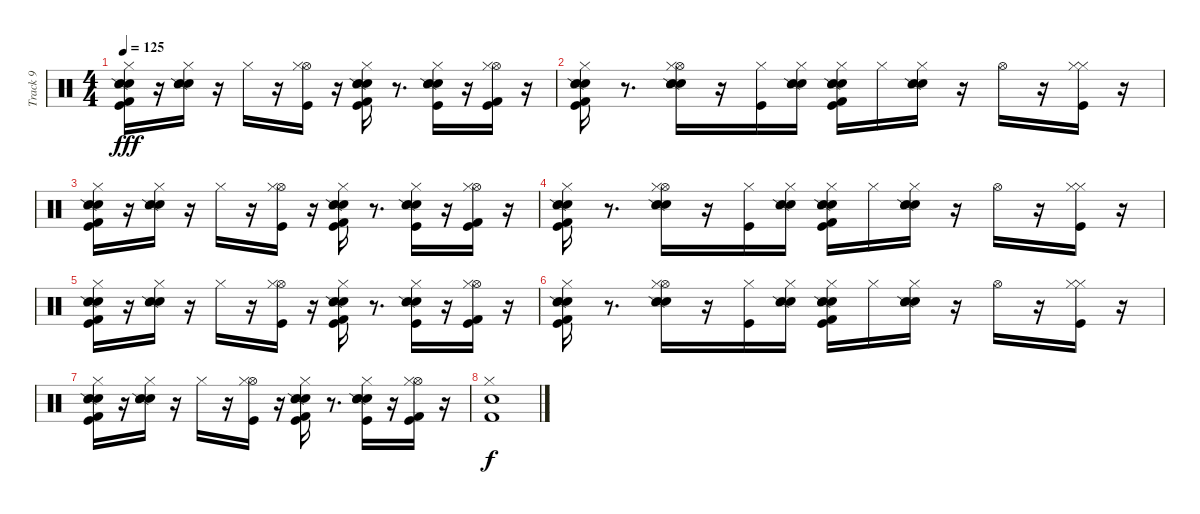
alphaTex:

\track ("Track 9" "Track 9") {instrument percussion}
\staff {score}
\articulation defaults
\ts (4 4)
\tempo 125
\clef neutral
\ks c
("Electric Snare (hit)" "Metronome (bell)" "Snare (side stick) 2" "Kick (hit)" "Kick (hit) 2" "Hi-Hat (closed)").16{dy fff} r.16 ("Metronome (bell)" "Snare (side stick) 2" "Electric Snare (hit)" "Hi-Hat (closed)").16 r.16 "Hi-Hat (closed)".16 r.16 ("Kick (hit)" "Hi-Hat (open)" "Hi-Hat (closed)").16 r.16 ("Metronome (bell)" "Snare (side stick) 2" "Electric Snare (hit)" "Kick (hit)" "Kick (hit) 2" "Hi-Hat (closed)").16 r.8{d} ("Metronome (bell)" "Snare (side stick) 2" "Electric Snare (hit)" "Kick (hit)" "Hi-Hat (closed)").16 r.16 ("Kick (hit)" "Kick (hit) 2" "Hi-Hat (open)" "Hi-Hat (closed)").16 r.16 |
("Metronome (bell)" "Snare (side stick) 2" "Kick (hit)" "Kick (hit) 2" "Electric Snare (hit)" "Hi-Hat (closed)").16 r.8{d} ("Metronome (bell)" "Snare (side stick) 2" "Electric Snare (hit)" "Hi-Hat (open)" "Hi-Hat (closed)").16 r.16 ("Kick (hit)" "Hi-Hat (closed)").16 ("Metronome (bell)" "Snare (side stick) 2" "Electric Snare (hit)" "Hi-Hat (closed)").16 ("Metronome (bell)" "Snare (side stick) 2" "Kick (hit)" "Kick (hit) 2" "Electric Snare (hit)" "Hi-Hat (closed)").16 "Hi-Hat (closed)".16 ("Metronome (bell)" "Snare (side stick) 2" "Electric Snare (hit)" "Hi-Hat (closed)").16 r.16 "Hi-Hat (open)".16 r.16 ("Kick (hit)" "Hi-Hat (closed)" "Hi-Hat (closed)").16 r.16 |
("Electric Snare (hit)" "Metronome (bell)" "Snare (side stick) 2" "Kick (hit)" "Kick (hit) 2" "Hi-Hat (closed)").16 r.16 ("Metronome (bell)" "Snare (side stick) 2" "Electric Snare (hit)" "Hi-Hat (closed)").16 r.16 "Hi-Hat (closed)".16 r.16 ("Kick (hit)" "Hi-Hat (open)" "Hi-Hat (closed)").16 r.16 ("Metronome (bell)" "Snare (side stick) 2" "Electric Snare (hit)" "Kick (hit)" "Kick (hit) 2" "Hi-Hat (closed)").16 r.8{d} ("Metronome (bell)" "Snare (side stick) 2" "Electric Snare (hit)" "Kick (hit)" "Hi-Hat (closed)").16 r.16 ("Kick (hit)" "Kick (hit) 2" "Hi-Hat (open)" "Hi-Hat (closed)").16 r.16 |
("Metronome (bell)" "Snare (side stick) 2" "Kick (hit)" "Kick (hit) 2" "Electric Snare (hit)" "Hi-Hat (closed)").16 r.8{d} ("Metronome (bell)" "Snare (side stick) 2" "Electric Snare (hit)" "Hi-Hat (open)" "Hi-Hat (closed)").16 r.16 ("Kick (hit)" "Hi-Hat (closed)").16 ("Metronome (bell)" "Snare (side stick) 2" "Electric Snare (hit)" "Hi-Hat (closed)").16 ("Metronome (bell)" "Snare (side stick) 2" "Kick (hit)" "Kick (hit) 2" "Electric Snare (hit)" "Hi-Hat (closed)").16 "Hi-Hat (closed)".16 ("Metronome (bell)" "Snare (side stick) 2" "Electric Snare (hit)" "Hi-Hat (closed)").16 r.16 "Hi-Hat (open)".16 r.16 ("Kick (hit)" "Hi-Hat (closed)" "Hi-Hat (closed)").16 r.16 |
("Electric Snare (hit)" "Metronome (bell)" "Snare (side stick) 2" "Kick (hit)" "Kick (hit) 2" "Hi-Hat (closed)").16 r.16 ("Metronome (bell)" "Snare (side stick) 2" "Electric Snare (hit)" "Hi-Hat (closed)").16 r.16 "Hi-Hat (closed)".16 r.16 ("Kick (hit)" "Hi-Hat (open)" "Hi-Hat (closed)").16 r.16 ("Metronome (bell)" "Snare (side stick) 2" "Electric Snare (hit)" "Kick (hit)" "Kick (hit) 2" "Hi-Hat (closed)").16 r.8{d} ("Metronome (bell)" "Snare (side stick) 2" "Electric Snare (hit)" "Kick (hit)" "Hi-Hat (closed)").16 r.16 ("Kick (hit)" "Kick (hit) 2" "Hi-Hat (open)" "Hi-Hat (closed)").16 r.16 |
("Metronome (bell)" "Snare (side stick) 2" "Kick (hit)" "Kick (hit) 2" "Electric Snare (hit)" "Hi-Hat (closed)").16 r.8{d} ("Metronome (bell)" "Snare (side stick) 2" "Electric Snare (hit)" "Hi-Hat (open)" "Hi-Hat (closed)").16 r.16 ("Kick (hit)" "Hi-Hat (closed)").16 ("Metronome (bell)" "Snare (side stick) 2" "Electric Snare (hit)" "Hi-Hat (closed)").16 ("Metronome (bell)" "Snare (side stick) 2" "Kick (hit)" "Kick (hit) 2" "Electric Snare (hit)" "Hi-Hat (closed)").16 "Hi-Hat (closed)".16 ("Metronome (bell)" "Snare (side stick) 2" "Electric Snare (hit)" "Hi-Hat (closed)").16 r.16 "Hi-Hat (open)".16 r.16 ("Kick (hit)" "Hi-Hat (closed)" "Hi-Hat (closed)").16 r.16 |
("Electric Snare (hit)" "Metronome (bell)" "Snare (side stick) 2" "Kick (hit)" "Kick (hit) 2" "Hi-Hat (closed)").16 r.16 ("Metronome (bell)" "Snare (side stick) 2" "Electric Snare (hit)" "Hi-Hat (closed)").16 r.16 "Hi-Hat (closed)".16 r.16 ("Kick (hit)" "Hi-Hat (open)" "Hi-Hat (closed)").16 r.16 ("Metronome (bell)" "Snare (side stick) 2" "Electric Snare (hit)" "Kick (hit)" "Kick (hit) 2" "Hi-Hat (closed)").16 r.8{d} ("Metronome (bell)" "Snare (side stick) 2" "Electric Snare (hit)" "Kick (hit)" "Hi-Hat (closed)").16 r.16 ("Kick (hit)" "Kick (hit) 2" "Hi-Hat (open)" "Hi-Hat (closed)").16 r.16 |
("Kick (hit) 2" "Electric Snare (hit)" "Hi-Hat (closed)").1{dy f}
